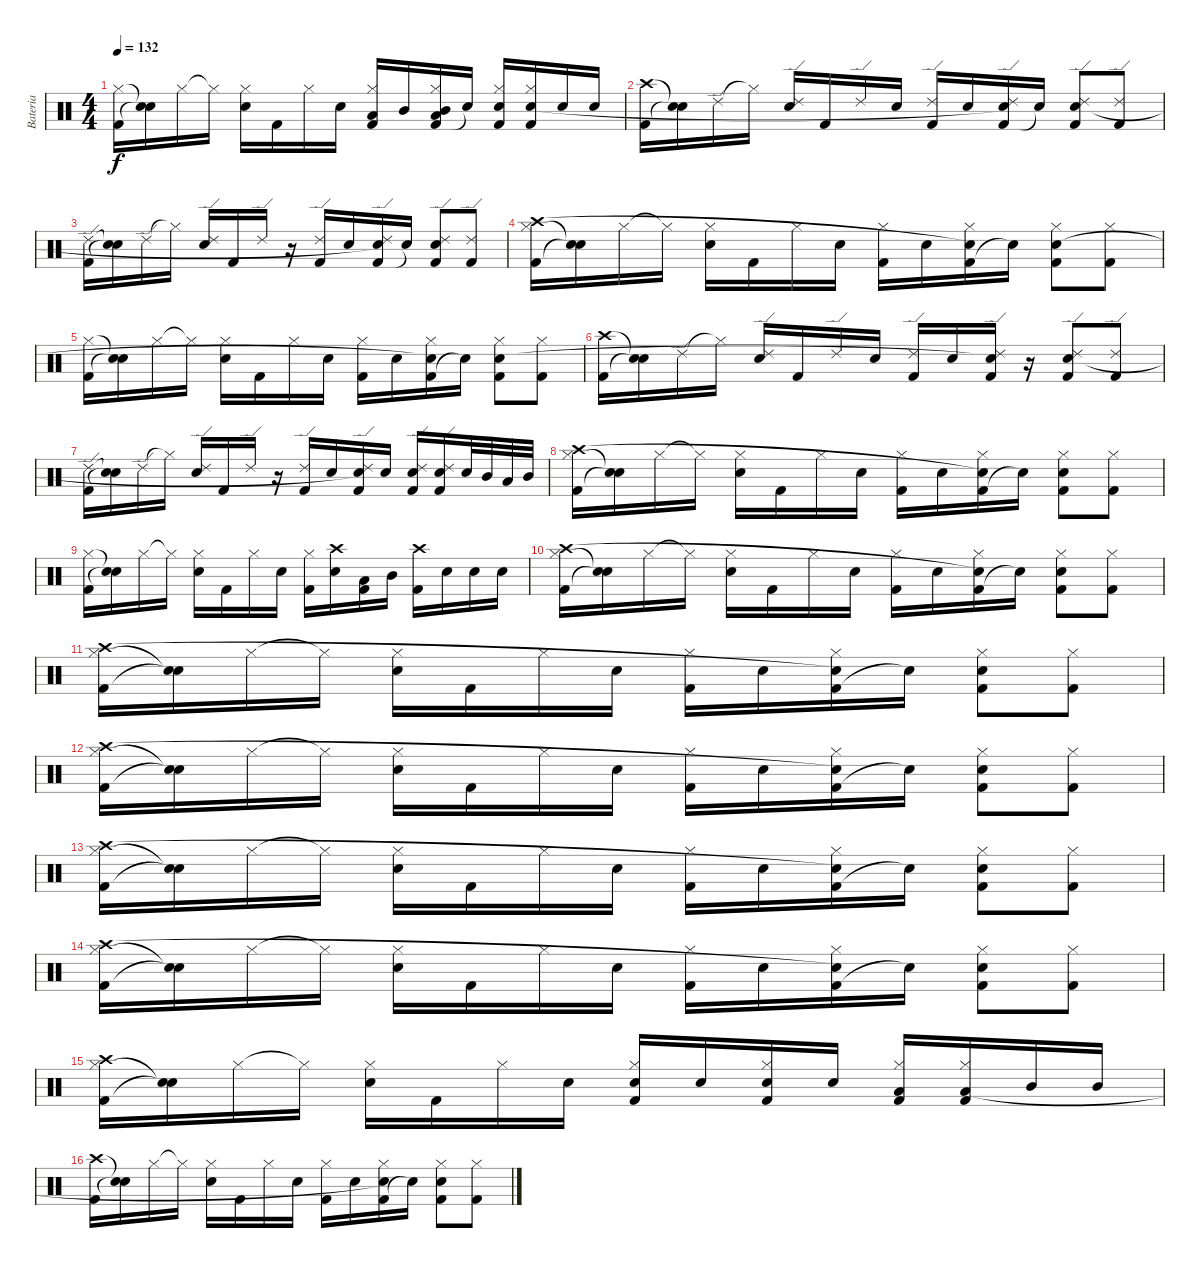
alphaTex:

\track ("Bateria" "Bateria") {instrument percussion}
\staff {score}
\articulation defaults
\ts (4 4)
\tempo 132
\clef neutral
\ks c
("Kick (hit) 2" "Hi-Hat (closed)").16{dy f} ("Snare (hit)"{t} "Electric Snare (hit)"{t}).16 "Hi-Hat (closed)".16 "Hi-Hat (closed)"{t}.16 ("Hi-Hat (closed)" "Electric Snare (hit)").16 "Kick (hit) 2".16 "Hi-Hat (closed)".16 "Electric Snare (hit)".16 ("Kick (hit) 2" "Hi-Hat (closed)" "Low Tom (hit)").16 "Mid Tom (hit)".16 ("Kick (hit) 2" "Hi-Hat (closed)" "Low Tom (hit)" "Mid Tom (hit)").16 "Electric Snare (hit)"{t}.16 ("Kick (hit) 2" "Hi-Hat (closed)" "Electric Snare (hit)").16 ("Kick (hit) 2" "Hi-Hat (closed)" "Electric Snare (hit)").16 "Electric Snare (hit)".16 "Electric Snare (hit)".16 |
("Kick (hit) 2" "Crash high (hit)").16 ("Snare (hit)"{t} "Electric Snare (hit)"{t}).16 "Ride (edge) 2".16 "Hi-Hat (closed)"{t}.16 ("Ride (edge) 2" "Electric Snare (hit)").16 "Kick (hit) 2".16 "Ride (edge) 2".16 "Electric Snare (hit)".16 ("Kick (hit) 2" "Ride (edge) 2").16 "Electric Snare (hit)".16 ("Kick (hit) 2" "Ride (edge) 2" "Snare (hit)"{t}).16 "Electric Snare (hit)"{t}.16 ("Kick (hit) 2" "Ride (edge) 2" "Electric Snare (hit)").8 ("Kick (hit) 2" "Ride (edge) 2").8 |
("Kick (hit) 2" "Ride (edge) 2").16 ("Snare (hit)"{t} "Electric Snare (hit)"{t}).16 "Ride (edge) 2".16 "Hi-Hat (closed)"{t}.16 ("Ride (edge) 2" "Electric Snare (hit)").16 "Kick (hit) 2".16 "Ride (edge) 2".16 r.16 ("Kick (hit) 2" "Ride (edge) 2").16 "Electric Snare (hit)".16 ("Kick (hit) 2" "Ride (edge) 2" "Snare (hit)"{t}).16 "Electric Snare (hit)"{t}.16 ("Kick (hit) 2" "Ride (edge) 2" "Electric Snare (hit)").8 ("Kick (hit) 2" "Ride (edge) 2").8 |
("Kick (hit) 2" "Hi-Hat (closed)" "Crash high (hit)").16 ("Snare (hit)"{t} "Electric Snare (hit)"{t}).16 "Hi-Hat (closed)".16 "Hi-Hat (closed)"{t}.16 ("Hi-Hat (closed)" "Electric Snare (hit)").16 "Kick (hit) 2".16 "Hi-Hat (closed)".16 "Electric Snare (hit)".16 ("Kick (hit) 2" "Hi-Hat (closed)").16 "Electric Snare (hit)".16 ("Kick (hit) 2" "Hi-Hat (closed)" "Snare (hit)"{t}).16 "Electric Snare (hit)"{t}.16 ("Kick (hit) 2" "Hi-Hat (closed)" "Electric Snare (hit)").8 ("Kick (hit) 2" "Hi-Hat (closed)").8 |
("Kick (hit) 2" "Hi-Hat (closed)").16 ("Snare (hit)"{t} "Electric Snare (hit)"{t}).16 "Hi-Hat (closed)".16 "Hi-Hat (closed)"{t}.16 ("Hi-Hat (closed)" "Electric Snare (hit)").16 "Kick (hit) 2".16 "Hi-Hat (closed)".16 "Electric Snare (hit)".16 ("Kick (hit) 2" "Hi-Hat (closed)").16 "Electric Snare (hit)".16 ("Kick (hit) 2" "Hi-Hat (closed)" "Snare (hit)"{t}).16 "Electric Snare (hit)"{t}.16 ("Kick (hit) 2" "Hi-Hat (closed)" "Electric Snare (hit)").8 ("Kick (hit) 2" "Hi-Hat (closed)").8 |
("Kick (hit) 2" "Crash high (hit)").16 ("Snare (hit)"{t} "Electric Snare (hit)"{t}).16 "Ride (edge) 2".16 "Hi-Hat (closed)"{t}.16 ("Ride (edge) 2" "Electric Snare (hit)").16 "Kick (hit) 2".16 "Ride (edge) 2".16 "Electric Snare (hit)".16 ("Kick (hit) 2" "Ride (edge) 2").16 "Electric Snare (hit)".16 ("Kick (hit) 2" "Ride (edge) 2" "Snare (hit)"{t}).16 r.16 ("Kick (hit) 2" "Ride (edge) 2" "Electric Snare (hit)").8 ("Kick (hit) 2" "Ride (edge) 2").8 |
("Kick (hit) 2" "Ride (edge) 2").16 ("Snare (hit)"{t} "Electric Snare (hit)"{t}).16 "Ride (edge) 2".16 "Hi-Hat (closed)"{t}.16 ("Ride (edge) 2" "Electric Snare (hit)").16 "Kick (hit) 2".16 "Ride (edge) 2".16 r.16 ("Kick (hit) 2" "Ride (edge) 2").16 "Electric Snare (hit)".16 ("Kick (hit) 2" "Ride (edge) 2" "Snare (hit)"{t}).16 "Electric Snare (hit)".16 ("Kick (hit) 2" "Ride (edge) 2" "Electric Snare (hit)").16 ("Kick (hit) 2" "Ride (edge) 2" "Electric Snare (hit)").16 "Electric Snare (hit)".32 "Mid Tom (hit)".32 "Low Tom (hit)".32 "Mid Tom (hit)".32 |
("Kick (hit) 2" "Hi-Hat (closed)" "Crash high (hit)").16 ("Snare (hit)"{t} "Electric Snare (hit)"{t}).16 "Hi-Hat (closed)".16 "Hi-Hat (closed)"{t}.16 ("Hi-Hat (closed)" "Electric Snare (hit)").16 "Kick (hit) 2".16 "Hi-Hat (closed)".16 "Electric Snare (hit)".16 ("Kick (hit) 2" "Hi-Hat (closed)").16 "Electric Snare (hit)".16 ("Kick (hit) 2" "Hi-Hat (closed)" "Snare (hit)"{t}).16 "Electric Snare (hit)"{t}.16 ("Kick (hit) 2" "Hi-Hat (closed)" "Electric Snare (hit)").8 ("Kick (hit) 2" "Hi-Hat (closed)").8 |
("Kick (hit) 2" "Hi-Hat (closed)").16 ("Snare (hit)"{t} "Electric Snare (hit)"{t}).16 "Hi-Hat (closed)".16 "Hi-Hat (closed)"{t}.16 ("Hi-Hat (closed)" "Electric Snare (hit)").16 "Kick (hit) 2".16 "Hi-Hat (closed)".16 "Electric Snare (hit)".16 ("Kick (hit) 2" "Hi-Hat (closed)").16 ("Electric Snare (hit)" "Crash high (hit)").16 ("Kick (hit) 2" "Low Tom (hit)").16 "Mid Tom (hit)".16 ("Kick (hit) 2" "Crash high (hit)").16 "Electric Snare (hit)".16 "Electric Snare (hit)".16 "Electric Snare (hit)".16 |
("Kick (hit) 2" "Hi-Hat (closed)" "Crash high (hit)").16 ("Snare (hit)"{t} "Electric Snare (hit)"{t}).16 "Hi-Hat (closed)".16 "Hi-Hat (closed)"{t}.16 ("Hi-Hat (closed)" "Electric Snare (hit)").16 "Kick (hit) 2".16 "Hi-Hat (closed)".16 "Electric Snare (hit)".16 ("Kick (hit) 2" "Hi-Hat (closed)").16 "Electric Snare (hit)".16 ("Kick (hit) 2" "Hi-Hat (closed)" "Snare (hit)"{t}).16 "Electric Snare (hit)"{t}.16 ("Kick (hit) 2" "Hi-Hat (closed)" "Electric Snare (hit)").8 ("Kick (hit) 2" "Hi-Hat (closed)").8 |
("Kick (hit) 2" "Hi-Hat (closed)" "Crash high (hit)").16 ("Snare (hit)"{t} "Electric Snare (hit)"{t}).16 "Hi-Hat (closed)".16 "Hi-Hat (closed)"{t}.16 ("Hi-Hat (closed)" "Electric Snare (hit)").16 "Kick (hit) 2".16 "Hi-Hat (closed)".16 "Electric Snare (hit)".16 ("Kick (hit) 2" "Hi-Hat (closed)").16 "Electric Snare (hit)".16 ("Kick (hit) 2" "Hi-Hat (closed)" "Snare (hit)"{t}).16 "Electric Snare (hit)"{t}.16 ("Kick (hit) 2" "Hi-Hat (closed)" "Electric Snare (hit)").8 ("Kick (hit) 2" "Hi-Hat (closed)").8 |
("Kick (hit) 2" "Hi-Hat (closed)" "Crash high (hit)").16 ("Snare (hit)"{t} "Electric Snare (hit)"{t}).16 "Hi-Hat (closed)".16 "Hi-Hat (closed)"{t}.16 ("Hi-Hat (closed)" "Electric Snare (hit)").16 "Kick (hit) 2".16 "Hi-Hat (closed)".16 "Electric Snare (hit)".16 ("Kick (hit) 2" "Hi-Hat (closed)").16 "Electric Snare (hit)".16 ("Kick (hit) 2" "Hi-Hat (closed)" "Snare (hit)"{t}).16 "Electric Snare (hit)"{t}.16 ("Kick (hit) 2" "Hi-Hat (closed)" "Electric Snare (hit)").8 ("Kick (hit) 2" "Hi-Hat (closed)").8 |
("Kick (hit) 2" "Hi-Hat (closed)" "Crash high (hit)").16 ("Snare (hit)"{t} "Electric Snare (hit)"{t}).16 "Hi-Hat (closed)".16 "Hi-Hat (closed)"{t}.16 ("Hi-Hat (closed)" "Electric Snare (hit)").16 "Kick (hit) 2".16 "Hi-Hat (closed)".16 "Electric Snare (hit)".16 ("Kick (hit) 2" "Hi-Hat (closed)").16 "Electric Snare (hit)".16 ("Kick (hit) 2" "Hi-Hat (closed)" "Snare (hit)"{t}).16 "Electric Snare (hit)"{t}.16 ("Kick (hit) 2" "Hi-Hat (closed)" "Electric Snare (hit)").8 ("Kick (hit) 2" "Hi-Hat (closed)").8 |
("Kick (hit) 2" "Hi-Hat (closed)" "Crash high (hit)").16 ("Snare (hit)"{t} "Electric Snare (hit)"{t}).16 "Hi-Hat (closed)".16 "Hi-Hat (closed)"{t}.16 ("Hi-Hat (closed)" "Electric Snare (hit)").16 "Kick (hit) 2".16 "Hi-Hat (closed)".16 "Electric Snare (hit)".16 ("Kick (hit) 2" "Hi-Hat (closed)").16 "Electric Snare (hit)".16 ("Kick (hit) 2" "Hi-Hat (closed)" "Snare (hit)"{t}).16 "Electric Snare (hit)"{t}.16 ("Kick (hit) 2" "Hi-Hat (closed)" "Electric Snare (hit)").8 ("Kick (hit) 2" "Hi-Hat (closed)").8 |
("Kick (hit) 2" "Hi-Hat (closed)" "Crash high (hit)").16 ("Snare (hit)"{t} "Electric Snare (hit)"{t}).16 "Hi-Hat (closed)".16 "Hi-Hat (closed)"{t}.16 ("Hi-Hat (closed)" "Electric Snare (hit)").16 "Kick (hit) 2".16 "Hi-Hat (closed)".16 "Electric Snare (hit)".16 ("Kick (hit) 2" "Hi-Hat (closed)" "Electric Snare (hit)").16 "Electric Snare (hit)".16 ("Kick (hit) 2" "Hi-Hat (closed)" "Electric Snare (hit)").16 "Electric Snare (hit)".16 ("Kick (hit) 2" "Hi-Hat (closed)" "Low Tom (hit)").16 ("Kick (hit) 2" "Hi-Hat (closed)" "Low Tom (hit)").16 "Mid Tom (hit)".16 "Mid Tom (hit)".16 |
("Kick (hit) 2" "Crash high (hit)").16 ("Snare (hit)"{t} "Electric Snare (hit)"{t}).16 "Hi-Hat (closed)".16 "Hi-Hat (closed)"{t}.16 ("Hi-Hat (closed)" "Electric Snare (hit)").16 "Kick (hit) 2".16 "Hi-Hat (closed)".16 "Electric Snare (hit)".16 ("Kick (hit) 2" "Hi-Hat (closed)").16 "Electric Snare (hit)".16 ("Kick (hit) 2" "Hi-Hat (closed)" "Snare (hit)"{t}).16 "Electric Snare (hit)"{t}.16 ("Kick (hit) 2" "Hi-Hat (closed)" "Electric Snare (hit)").8 ("Kick (hit) 2" "Hi-Hat (closed)").8
